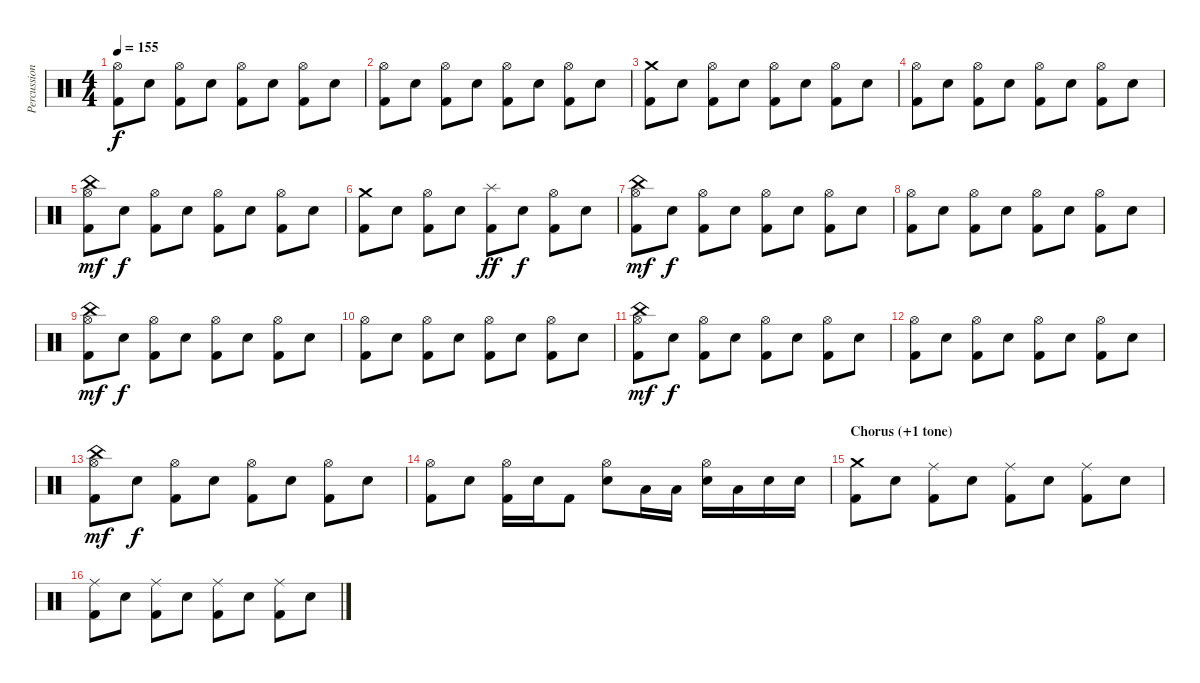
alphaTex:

\track ("Percussion" "Percussion") {instrument percussion}
\staff {score}
\articulation defaults
\ts (4 4)
\tempo 155
\clef neutral
\ks c
("Hi-Hat (open)" "Kick (hit) 2").8{dy f} "Electric Snare (hit)".8 ("Hi-Hat (open)" "Kick (hit) 2").8 "Electric Snare (hit)".8 ("Hi-Hat (open)" "Kick (hit) 2").8 "Electric Snare (hit)".8 ("Hi-Hat (open)" "Kick (hit) 2").8 "Electric Snare (hit)".8 |
("Hi-Hat (open)" "Kick (hit) 2").8 "Electric Snare (hit)".8 ("Hi-Hat (open)" "Kick (hit) 2").8 "Electric Snare (hit)".8 ("Hi-Hat (open)" "Kick (hit) 2").8 "Electric Snare (hit)".8 ("Hi-Hat (open)" "Kick (hit) 2").8 "Electric Snare (hit)".8 |
("Crash medium (hit)" "Kick (hit) 2").8 "Electric Snare (hit)".8 ("Hi-Hat (open)" "Kick (hit) 2").8 "Electric Snare (hit)".8 ("Hi-Hat (open)" "Kick (hit) 2").8 "Electric Snare (hit)".8 ("Hi-Hat (open)" "Kick (hit) 2").8 "Electric Snare (hit)".8 |
("Hi-Hat (open)" "Kick (hit) 2").8 "Electric Snare (hit)".8 ("Hi-Hat (open)" "Kick (hit) 2").8 "Electric Snare (hit)".8 ("Hi-Hat (open)" "Kick (hit) 2").8 "Electric Snare (hit)".8 ("Hi-Hat (open)" "Kick (hit) 2").8 "Electric Snare (hit)".8 |
("China (hit)" "Hi-Hat (open)" "Kick (hit) 2").8{dy mf} "Electric Snare (hit)".8{dy f} ("Hi-Hat (open)" "Kick (hit) 2").8 "Electric Snare (hit)".8 ("Hi-Hat (open)" "Kick (hit) 2").8 "Electric Snare (hit)".8 ("Hi-Hat (open)" "Kick (hit) 2").8 "Electric Snare (hit)".8 |
("Crash medium (hit)" "Kick (hit) 2").8 "Electric Snare (hit)".8 ("Hi-Hat (open)" "Kick (hit) 2").8 "Electric Snare (hit)".8 ("Splash (hit)" "Kick (hit) 2").8{dy ff} "Electric Snare (hit)".8{dy f} ("Hi-Hat (open)" "Kick (hit) 2").8 "Electric Snare (hit)".8 |
("Hi-Hat (open)" "China (hit)" "Kick (hit) 2").8{dy mf} "Electric Snare (hit)".8{dy f} ("Hi-Hat (open)" "Kick (hit) 2").8 "Electric Snare (hit)".8 ("Hi-Hat (open)" "Kick (hit) 2").8 "Electric Snare (hit)".8 ("Hi-Hat (open)" "Kick (hit) 2").8 "Electric Snare (hit)".8 |
("Hi-Hat (open)" "Kick (hit) 2").8 "Electric Snare (hit)".8 ("Hi-Hat (open)" "Kick (hit) 2").8 "Electric Snare (hit)".8 ("Hi-Hat (open)" "Kick (hit) 2").8 "Electric Snare (hit)".8 ("Hi-Hat (open)" "Kick (hit) 2").8 "Electric Snare (hit)".8 |
("Hi-Hat (open)" "China (hit)" "Kick (hit) 2").8{dy mf} "Electric Snare (hit)".8{dy f} ("Hi-Hat (open)" "Kick (hit) 2").8 "Electric Snare (hit)".8 ("Hi-Hat (open)" "Kick (hit) 2").8 "Electric Snare (hit)".8 ("Hi-Hat (open)" "Kick (hit) 2").8 "Electric Snare (hit)".8 |
("Hi-Hat (open)" "Kick (hit) 2").8 "Electric Snare (hit)".8 ("Hi-Hat (open)" "Kick (hit) 2").8 "Electric Snare (hit)".8 ("Hi-Hat (open)" "Kick (hit) 2").8 "Electric Snare (hit)".8 ("Hi-Hat (open)" "Kick (hit) 2").8 "Electric Snare (hit)".8 |
("Hi-Hat (open)" "China (hit)" "Kick (hit) 2").8{dy mf} "Electric Snare (hit)".8{dy f} ("Hi-Hat (open)" "Kick (hit) 2").8 "Electric Snare (hit)".8 ("Hi-Hat (open)" "Kick (hit) 2").8 "Electric Snare (hit)".8 ("Hi-Hat (open)" "Kick (hit) 2").8 "Electric Snare (hit)".8 |
("Hi-Hat (open)" "Kick (hit) 2").8 "Electric Snare (hit)".8 ("Hi-Hat (open)" "Kick (hit) 2").8 "Electric Snare (hit)".8 ("Hi-Hat (open)" "Kick (hit) 2").8 "Electric Snare (hit)".8 ("Hi-Hat (open)" "Kick (hit) 2").8 "Electric Snare (hit)".8 |
("Hi-Hat (open)" "China (hit)" "Kick (hit) 2").8{dy mf} "Electric Snare (hit)".8{dy f} ("Hi-Hat (open)" "Kick (hit) 2").8 "Electric Snare (hit)".8 ("Hi-Hat (open)" "Kick (hit) 2").8 "Electric Snare (hit)".8 ("Hi-Hat (open)" "Kick (hit) 2").8 "Electric Snare (hit)".8 |
("Hi-Hat (open)" "Kick (hit) 2").8 "Electric Snare (hit)".8 ("Hi-Hat (open)" "Kick (hit) 2").16 "Electric Snare (hit)".16 "Kick (hit) 2".8 ("Hi-Hat (open)" "Electric Snare (hit)").8 "Low Tom (hit)".16 "Low Tom (hit)".16 ("Hi-Hat (open)" "Electric Snare (hit)").16 "Low Tom (hit)".16 "Electric Snare (hit)".16 "Electric Snare (hit)".16 |
\section ("" "Chorus (+1 tone)")
("Crash medium (hit)" "Kick (hit) 2").8 "Electric Snare (hit)".8 ("Ride (middle)" "Kick (hit) 2").8 "Electric Snare (hit)".8 ("Ride (middle)" "Kick (hit) 2").8 "Electric Snare (hit)".8 ("Ride (middle)" "Kick (hit) 2").8 "Electric Snare (hit)".8 |
("Ride (middle)" "Kick (hit) 2").8 "Electric Snare (hit)".8 ("Ride (middle)" "Kick (hit) 2").8 "Electric Snare (hit)".8 ("Ride (middle)" "Kick (hit) 2").8 "Electric Snare (hit)".8 ("Ride (middle)" "Kick (hit) 2").8 "Electric Snare (hit)".8
